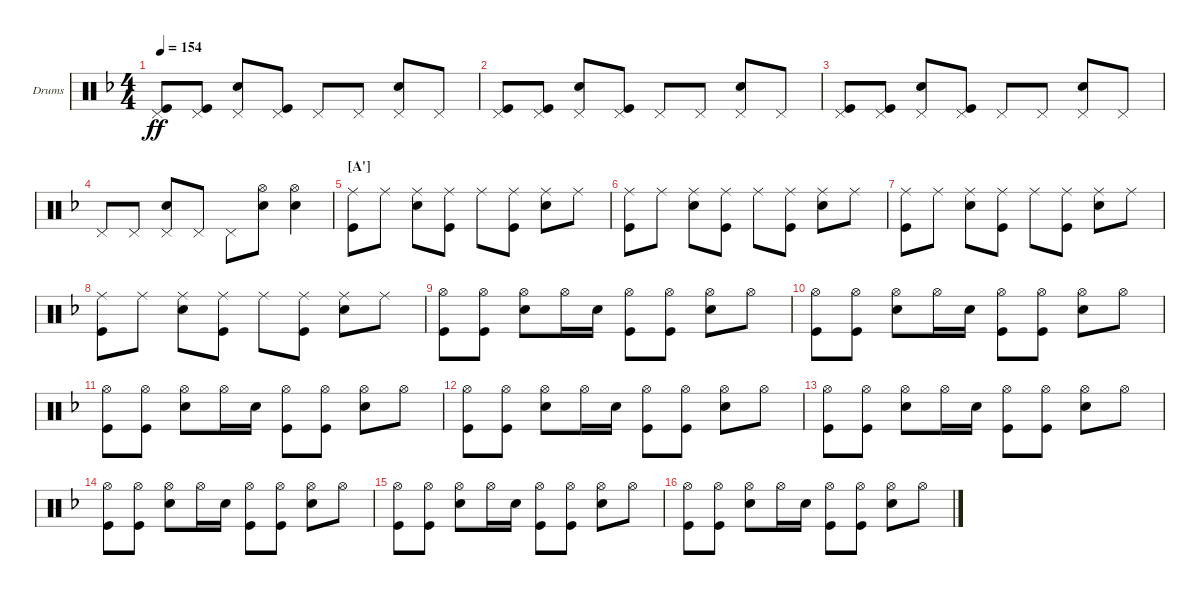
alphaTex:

\bracketExtendMode groupsimilarinstruments
\firstSystemTrackNameOrientation horizontal
\otherSystemsTrackNameOrientation horizontal
\track ("Fabrizio Moretti" "Drums") {instrument percussion}
\staff {score}
\articulation defaults
\ts (4 4)
\tempo 154
\clef neutral
\ks f
("Pedal Hi-Hat (hit)" "Kick (hit)").8{dy ff} ("Pedal Hi-Hat (hit)" "Kick (hit)").8 ("Pedal Hi-Hat (hit)" "Snare (hit) 2").8 ("Pedal Hi-Hat (hit)" "Kick (hit)").8 "Pedal Hi-Hat (hit)".8 "Pedal Hi-Hat (hit)".8 ("Pedal Hi-Hat (hit)" "Snare (hit) 2").8 "Pedal Hi-Hat (hit)".8 |
("Pedal Hi-Hat (hit)" "Kick (hit)").8 ("Pedal Hi-Hat (hit)" "Kick (hit)").8 ("Pedal Hi-Hat (hit)" "Snare (hit) 2").8 ("Pedal Hi-Hat (hit)" "Kick (hit)").8 "Pedal Hi-Hat (hit)".8 "Pedal Hi-Hat (hit)".8 ("Pedal Hi-Hat (hit)" "Snare (hit) 2").8 "Pedal Hi-Hat (hit)".8 |
("Pedal Hi-Hat (hit)" "Kick (hit)").8 ("Pedal Hi-Hat (hit)" "Kick (hit)").8 ("Pedal Hi-Hat (hit)" "Snare (hit) 2").8 ("Pedal Hi-Hat (hit)" "Kick (hit)").8 "Pedal Hi-Hat (hit)".8 "Pedal Hi-Hat (hit)".8 ("Pedal Hi-Hat (hit)" "Snare (hit) 2").8 "Pedal Hi-Hat (hit)".8 |
"Pedal Hi-Hat (hit)".8 "Pedal Hi-Hat (hit)".8 ("Pedal Hi-Hat (hit)" "Snare (hit) 2").8 "Pedal Hi-Hat (hit)".8 "Pedal Hi-Hat (hit)".8 ("Hi-Hat (open)" "Snare (hit) 2").8 ("Hi-Hat (open)" "Snare (hit) 2").4 |
\section ("A'" "")
("Ride (middle)" "Kick (hit)").8 "Ride (middle)".8 ("Ride (middle)" "Snare (hit) 2").8 ("Ride (middle)" "Kick (hit)").8 "Ride (middle)".8 ("Ride (middle)" "Kick (hit)").8 ("Ride (middle)" "Snare (hit) 2").8 "Ride (middle)".8 |
("Ride (middle)" "Kick (hit)").8 "Ride (middle)".8 ("Ride (middle)" "Snare (hit) 2").8 ("Ride (middle)" "Kick (hit)").8 "Ride (middle)".8 ("Ride (middle)" "Kick (hit)").8 ("Ride (middle)" "Snare (hit) 2").8 "Ride (middle)".8 |
("Ride (middle)" "Kick (hit)").8 "Ride (middle)".8 ("Ride (middle)" "Snare (hit) 2").8 ("Ride (middle)" "Kick (hit)").8 "Ride (middle)".8 ("Ride (middle)" "Kick (hit)").8 ("Ride (middle)" "Snare (hit) 2").8 "Ride (middle)".8 |
("Ride (middle)" "Kick (hit)").8 "Ride (middle)".8 ("Ride (middle)" "Snare (hit) 2").8 ("Ride (middle)" "Kick (hit)").8 "Ride (middle)".8 ("Ride (middle)" "Kick (hit)").8 ("Ride (middle)" "Snare (hit) 2").8 "Ride (middle)".8 |
("Hi-Hat (open)" "Kick (hit)").8 ("Hi-Hat (open)" "Kick (hit)").8 ("Hi-Hat (open)" "Snare (hit) 2").8 "Hi-Hat (open)".16 "Snare (hit) 2".16 ("Hi-Hat (open)" "Kick (hit)").8 ("Hi-Hat (open)" "Kick (hit)").8 ("Hi-Hat (open)" "Snare (hit) 2").8 "Hi-Hat (open)".8 |
("Hi-Hat (open)" "Kick (hit)").8 ("Hi-Hat (open)" "Kick (hit)").8 ("Hi-Hat (open)" "Snare (hit) 2").8 "Hi-Hat (open)".16 "Snare (hit) 2".16 ("Hi-Hat (open)" "Kick (hit)").8 ("Hi-Hat (open)" "Kick (hit)").8 ("Hi-Hat (open)" "Snare (hit) 2").8 "Hi-Hat (open)".8 |
("Hi-Hat (open)" "Kick (hit)").8 ("Hi-Hat (open)" "Kick (hit)").8 ("Hi-Hat (open)" "Snare (hit) 2").8 "Hi-Hat (open)".16 "Snare (hit) 2".16 ("Hi-Hat (open)" "Kick (hit)").8 ("Hi-Hat (open)" "Kick (hit)").8 ("Hi-Hat (open)" "Snare (hit) 2").8 "Hi-Hat (open)".8 |
("Hi-Hat (open)" "Kick (hit)").8 ("Hi-Hat (open)" "Kick (hit)").8 ("Hi-Hat (open)" "Snare (hit) 2").8 "Hi-Hat (open)".16 "Snare (hit) 2".16 ("Hi-Hat (open)" "Kick (hit)").8 ("Hi-Hat (open)" "Kick (hit)").8 ("Hi-Hat (open)" "Snare (hit) 2").8 "Hi-Hat (open)".8 |
("Hi-Hat (open)" "Kick (hit)").8 ("Hi-Hat (open)" "Kick (hit)").8 ("Hi-Hat (open)" "Snare (hit) 2").8 "Hi-Hat (open)".16 "Snare (hit) 2".16 ("Hi-Hat (open)" "Kick (hit)").8 ("Hi-Hat (open)" "Kick (hit)").8 ("Hi-Hat (open)" "Snare (hit) 2").8 "Hi-Hat (open)".8 |
("Hi-Hat (open)" "Kick (hit)").8 ("Hi-Hat (open)" "Kick (hit)").8 ("Hi-Hat (open)" "Snare (hit) 2").8 "Hi-Hat (open)".16 "Snare (hit) 2".16 ("Hi-Hat (open)" "Kick (hit)").8 ("Hi-Hat (open)" "Kick (hit)").8 ("Hi-Hat (open)" "Snare (hit) 2").8 "Hi-Hat (open)".8 |
("Hi-Hat (open)" "Kick (hit)").8 ("Hi-Hat (open)" "Kick (hit)").8 ("Hi-Hat (open)" "Snare (hit) 2").8 "Hi-Hat (open)".16 "Snare (hit) 2".16 ("Hi-Hat (open)" "Kick (hit)").8 ("Hi-Hat (open)" "Kick (hit)").8 ("Hi-Hat (open)" "Snare (hit) 2").8 "Hi-Hat (open)".8 |
("Hi-Hat (open)" "Kick (hit)").8 ("Hi-Hat (open)" "Kick (hit)").8 ("Hi-Hat (open)" "Snare (hit) 2").8 "Hi-Hat (open)".16 "Snare (hit) 2".16 ("Hi-Hat (open)" "Kick (hit)").8 ("Hi-Hat (open)" "Kick (hit)").8 ("Hi-Hat (open)" "Snare (hit) 2").8 "Hi-Hat (open)".8
